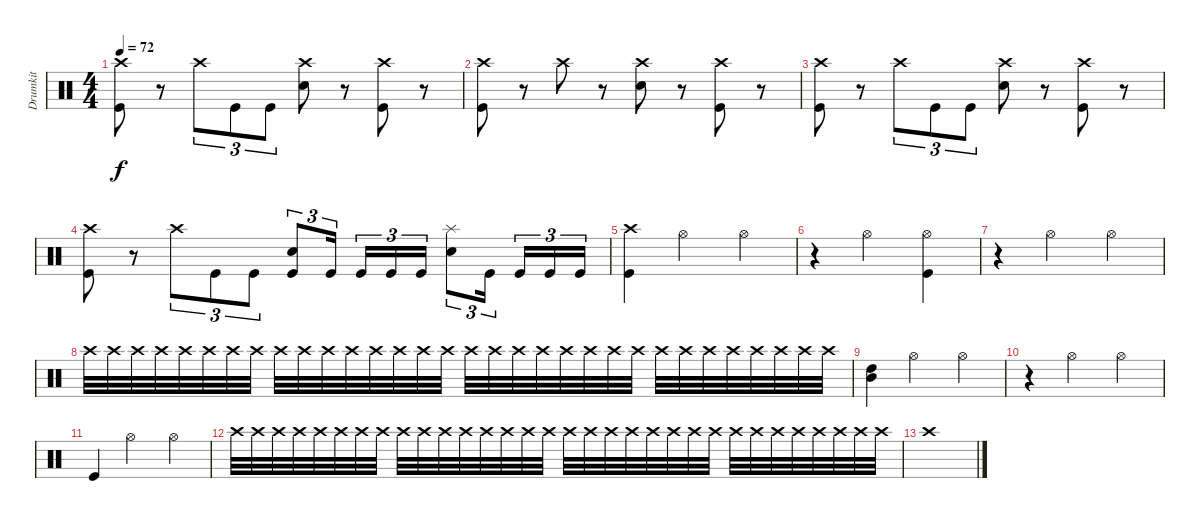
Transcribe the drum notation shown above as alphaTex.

\track ("Drumkit" "Drumkit") {instrument percussion}
\staff {score}
\articulation defaults
\ts (4 4)
\tempo 72
\clef neutral
\ks c
("Kick (hit)" "Crash high (hit)").8{dy f} r.8 "Crash high (hit)".8{tu (3 2)} "Kick (hit)".8{tu (3 2)} "Kick (hit)".8{tu (3 2)} ("Snare (hit) 2" "Crash high (hit)").8 r.8 ("Kick (hit)" "Crash high (hit)").8 r.8 |
("Kick (hit)" "Crash high (hit)").8 r.8 "Crash high (hit)".8 r.8 ("Snare (hit) 2" "Crash high (hit)").8 r.8 ("Kick (hit)" "Crash high (hit)").8 r.8 |
("Kick (hit)" "Crash high (hit)").8 r.8 "Crash high (hit)".8{tu (3 2)} "Kick (hit)".8{tu (3 2)} "Kick (hit)".8{tu (3 2)} ("Snare (hit) 2" "Crash high (hit)").8 r.8 ("Kick (hit)" "Crash high (hit)").8 r.8 |
("Kick (hit)" "Crash high (hit)").8 r.8 "Crash high (hit)".8{tu (3 2)} "Kick (hit)".8{tu (3 2)} "Kick (hit)".8{tu (3 2)} ("Kick (hit)" "Snare (hit) 2").8{tu (3 2)} "Kick (hit)".16{tu (3 2) beam splitsecondary} "Kick (hit)".16{tu (3 2)} "Kick (hit)".16{tu (3 2)} "Kick (hit)".16{tu (3 2)} ("Snare (hit) 2" "Splash (hit)").8{tu (3 2)} "Kick (hit)".16{tu (3 2) beam splitsecondary} "Kick (hit)".16{tu (3 2)} "Kick (hit)".16{tu (3 2)} "Kick (hit)".16{tu (3 2)} |
("Kick (hit)" "Crash high (hit)").4 "Hi-Hat (open)".2 "Hi-Hat (open)".4 |
r.4 "Hi-Hat (open)".2 ("Kick (hit)" "Hi-Hat (open)").4 |
r.4 "Hi-Hat (open)".2 "Hi-Hat (open)".4 |
"Crash high (hit)".32 "Crash high (hit)".32 "Crash high (hit)".32 "Crash high (hit)".32 "Crash high (hit)".32 "Crash high (hit)".32 "Crash high (hit)".32 "Crash high (hit)".32 "Crash high (hit)".32 "Crash high (hit)".32 "Crash high (hit)".32 "Crash high (hit)".32 "Crash high (hit)".32 "Crash high (hit)".32 "Crash high (hit)".32 "Crash high (hit)".32 "Crash high (hit)".32 "Crash high (hit)".32 "Crash high (hit)".32 "Crash high (hit)".32 "Crash high (hit)".32 "Crash high (hit)".32 "Crash high (hit)".32 "Crash high (hit)".32 "Crash high (hit)".32 "Crash high (hit)".32 "Crash high (hit)".32 "Crash high (hit)".32 "Crash high (hit)".32 "Crash high (hit)".32 "Crash high (hit)".32 "Crash high (hit)".32 |
("Mid Tom (hit)" "High Tom (hit)").4 "Hi-Hat (open)".2 "Hi-Hat (open)".4 |
r.4 "Hi-Hat (open)".2 "Hi-Hat (open)".4 |
"Kick (hit)".4 "Hi-Hat (open)".2 "Hi-Hat (open)".4 |
"Crash high (hit)".32 "Crash high (hit)".32 "Crash high (hit)".32 "Crash high (hit)".32 "Crash high (hit)".32 "Crash high (hit)".32 "Crash high (hit)".32 "Crash high (hit)".32 "Crash high (hit)".32 "Crash high (hit)".32 "Crash high (hit)".32 "Crash high (hit)".32 "Crash high (hit)".32 "Crash high (hit)".32 "Crash high (hit)".32 "Crash high (hit)".32 "Crash high (hit)".32 "Crash high (hit)".32 "Crash high (hit)".32 "Crash high (hit)".32 "Crash high (hit)".32 "Crash high (hit)".32 "Crash high (hit)".32 "Crash high (hit)".32 "Crash high (hit)".32 "Crash high (hit)".32 "Crash high (hit)".32 "Crash high (hit)".32 "Crash high (hit)".32 "Crash high (hit)".32 "Crash high (hit)".32 "Crash high (hit)".32 |
"Crash high (hit)".1
